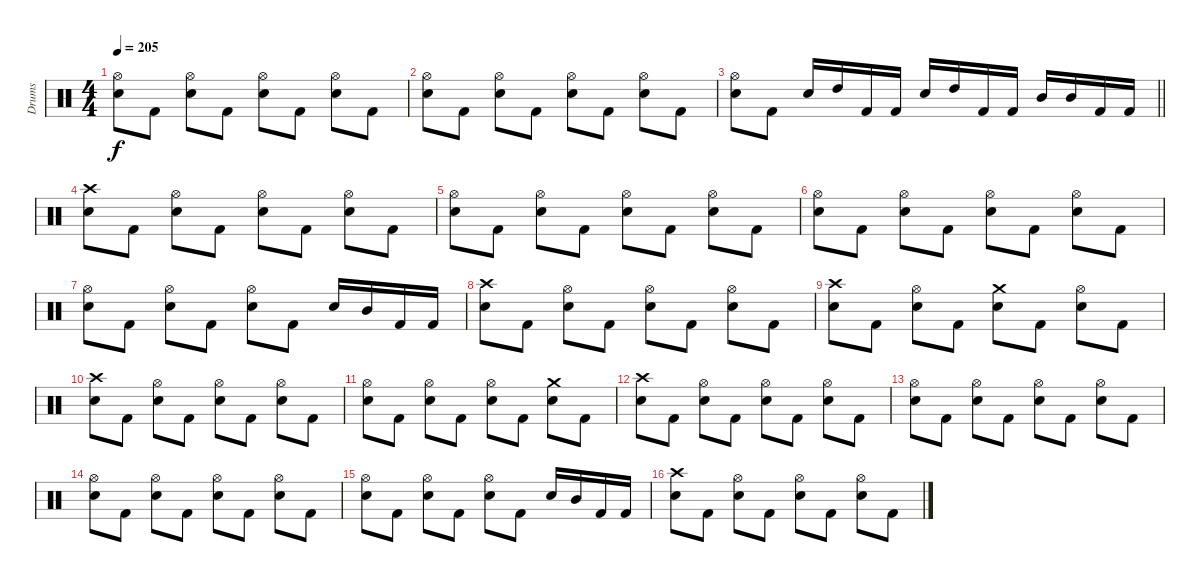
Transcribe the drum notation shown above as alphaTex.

\track ("Drums" "Drums") {instrument percussion}
\staff {score}
\articulation defaults
\ts (4 4)
\tempo 205
\clef neutral
\ks c
("Hi-Hat (open)" "Electric Snare (hit)").8{dy f} "Kick (hit) 2".8 ("Hi-Hat (open)" "Electric Snare (hit)").8 "Kick (hit) 2".8 ("Hi-Hat (open)" "Electric Snare (hit)").8 "Kick (hit) 2".8 ("Hi-Hat (open)" "Electric Snare (hit)").8 "Kick (hit) 2".8 |
("Hi-Hat (open)" "Electric Snare (hit)").8 "Kick (hit) 2".8 ("Hi-Hat (open)" "Electric Snare (hit)").8 "Kick (hit) 2".8 ("Hi-Hat (open)" "Electric Snare (hit)").8 "Kick (hit) 2".8 ("Hi-Hat (open)" "Electric Snare (hit)").8 "Kick (hit) 2".8 |
\barLineRight lightlight
("Hi-Hat (open)" "Electric Snare (hit)").8 "Kick (hit) 2".8 "Electric Snare (hit)".16 "High Tom (hit)".16 "Kick (hit) 2".16 "Kick (hit) 2".16 "Electric Snare (hit)".16 "High Tom (hit)".16 "Kick (hit) 2".16 "Kick (hit) 2".16 "Mid Tom (hit)".16 "Mid Tom (hit)".16 "Kick (hit) 2".16 "Kick (hit) 2".16 |
("Crash high (hit)" "Electric Snare (hit)").8 "Kick (hit) 2".8 ("Hi-Hat (open)" "Electric Snare (hit)").8 "Kick (hit) 2".8 ("Hi-Hat (open)" "Electric Snare (hit)").8 "Kick (hit) 2".8 ("Hi-Hat (open)" "Electric Snare (hit)").8 "Kick (hit) 2".8 |
("Hi-Hat (open)" "Electric Snare (hit)").8 "Kick (hit) 2".8 ("Hi-Hat (open)" "Electric Snare (hit)").8 "Kick (hit) 2".8 ("Hi-Hat (open)" "Electric Snare (hit)").8 "Kick (hit) 2".8 ("Hi-Hat (open)" "Electric Snare (hit)").8 "Kick (hit) 2".8 |
("Hi-Hat (open)" "Electric Snare (hit)").8 "Kick (hit) 2".8 ("Hi-Hat (open)" "Electric Snare (hit)").8 "Kick (hit) 2".8 ("Hi-Hat (open)" "Electric Snare (hit)").8 "Kick (hit) 2".8 ("Hi-Hat (open)" "Electric Snare (hit)").8 "Kick (hit) 2".8 |
("Hi-Hat (open)" "Electric Snare (hit)").8 "Kick (hit) 2".8 ("Hi-Hat (open)" "Electric Snare (hit)").8 "Kick (hit) 2".8 ("Hi-Hat (open)" "Electric Snare (hit)").8 "Kick (hit) 2".8 "Electric Snare (hit)".16 "Mid Tom (hit)".16 "Kick (hit) 2".16 "Kick (hit) 2".16 |
("Crash high (hit)" "Electric Snare (hit)").8 "Kick (hit) 2".8 ("Hi-Hat (open)" "Electric Snare (hit)").8 "Kick (hit) 2".8 ("Hi-Hat (open)" "Electric Snare (hit)").8 "Kick (hit) 2".8 ("Hi-Hat (open)" "Electric Snare (hit)").8 "Kick (hit) 2".8 |
("Crash high (hit)" "Electric Snare (hit)").8 "Kick (hit) 2".8 ("Hi-Hat (open)" "Electric Snare (hit)").8 "Kick (hit) 2".8 ("Crash medium (hit)" "Electric Snare (hit)").8 "Kick (hit) 2".8 ("Hi-Hat (open)" "Electric Snare (hit)").8 "Kick (hit) 2".8 |
("Crash high (hit)" "Electric Snare (hit)").8 "Kick (hit) 2".8 ("Hi-Hat (open)" "Electric Snare (hit)").8 "Kick (hit) 2".8 ("Hi-Hat (open)" "Electric Snare (hit)").8 "Kick (hit) 2".8 ("Hi-Hat (open)" "Electric Snare (hit)").8 "Kick (hit) 2".8 |
("Hi-Hat (open)" "Electric Snare (hit)").8 "Kick (hit) 2".8 ("Hi-Hat (open)" "Electric Snare (hit)").8 "Kick (hit) 2".8 ("Hi-Hat (open)" "Electric Snare (hit)").8 "Kick (hit) 2".8 ("Crash medium (hit)" "Electric Snare (hit)").8 "Kick (hit) 2".8 |
("Crash high (hit)" "Electric Snare (hit)").8 "Kick (hit) 2".8 ("Hi-Hat (open)" "Electric Snare (hit)").8 "Kick (hit) 2".8 ("Hi-Hat (open)" "Electric Snare (hit)").8 "Kick (hit) 2".8 ("Hi-Hat (open)" "Electric Snare (hit)").8 "Kick (hit) 2".8 |
("Hi-Hat (open)" "Electric Snare (hit)").8 "Kick (hit) 2".8 ("Hi-Hat (open)" "Electric Snare (hit)").8 "Kick (hit) 2".8 ("Hi-Hat (open)" "Electric Snare (hit)").8 "Kick (hit) 2".8 ("Hi-Hat (open)" "Electric Snare (hit)").8 "Kick (hit) 2".8 |
("Hi-Hat (open)" "Electric Snare (hit)").8 "Kick (hit) 2".8 ("Hi-Hat (open)" "Electric Snare (hit)").8 "Kick (hit) 2".8 ("Hi-Hat (open)" "Electric Snare (hit)").8 "Kick (hit) 2".8 ("Hi-Hat (open)" "Electric Snare (hit)").8 "Kick (hit) 2".8 |
("Hi-Hat (open)" "Electric Snare (hit)").8 "Kick (hit) 2".8 ("Hi-Hat (open)" "Electric Snare (hit)").8 "Kick (hit) 2".8 ("Hi-Hat (open)" "Electric Snare (hit)").8 "Kick (hit) 2".8 "Electric Snare (hit)".16 "Mid Tom (hit)".16 "Kick (hit) 2".16 "Kick (hit) 2".16 |
("Crash high (hit)" "Electric Snare (hit)").8 "Kick (hit) 2".8 ("Hi-Hat (open)" "Electric Snare (hit)").8 "Kick (hit) 2".8 ("Hi-Hat (open)" "Electric Snare (hit)").8 "Kick (hit) 2".8 ("Hi-Hat (open)" "Electric Snare (hit)").8 "Kick (hit) 2".8
